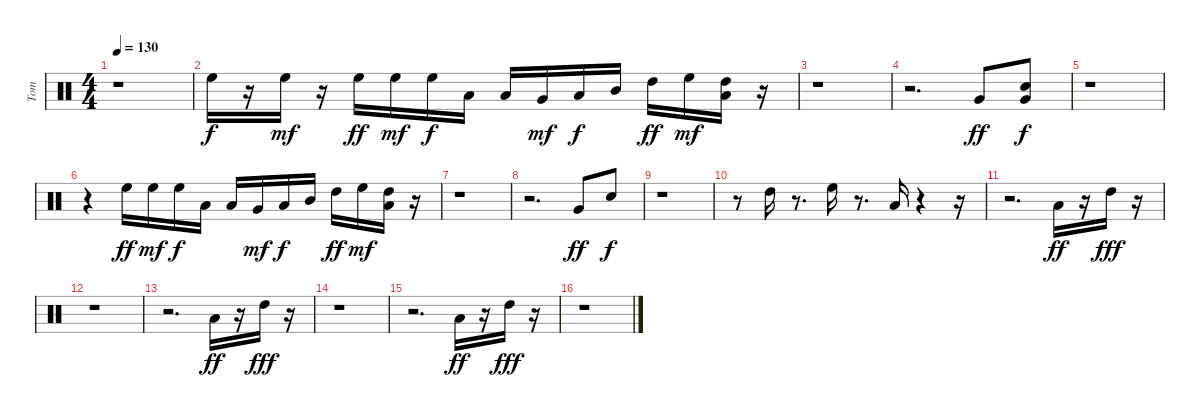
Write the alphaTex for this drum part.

\track ("Tom" "Tom") {instrument percussion}
\staff {score}
\articulation defaults
\ts (4 4)
\tempo 130
\clef neutral
\ks c
r.1{dy f} |
"High Floor Tom (hit)".16 r.16 "High Floor Tom (hit)".16{dy mf} r.16 "High Floor Tom (hit)".16{dy ff} "High Floor Tom (hit)".16{dy mf} "High Floor Tom (hit)".16{dy f} "Low Floor Tom (hit)".16 "Low Floor Tom (hit)".16 "Very Low Tom (hit)".16{dy mf} "Low Tom (hit)".16{dy f} "Mid Tom (hit)".16 "High Tom (hit)".16{dy ff} "High Floor Tom (hit)".16{dy mf} ("High Tom (hit)" "Low Floor Tom (hit)").16 r.16 |
r.1 |
r.2{d} "Very Low Tom (hit)".8{dy ff} ("Very Low Tom (hit)" "Electric Snare (hit)").8{dy f} |
r.1 |
r.4 "High Floor Tom (hit)".16{dy ff} "High Floor Tom (hit)".16{dy mf} "High Floor Tom (hit)".16{dy f} "Low Floor Tom (hit)".16 "Low Floor Tom (hit)".16 "Very Low Tom (hit)".16{dy mf} "Low Tom (hit)".16{dy f} "Mid Tom (hit)".16 "High Tom (hit)".16{dy ff} "High Floor Tom (hit)".16{dy mf} ("High Tom (hit)" "Low Floor Tom (hit)").16 r.16 |
r.1 |
r.2{d} "Very Low Tom (hit)".8{dy ff} "Electric Snare (hit)".8{dy f} |
r.1 |
r.8 "High Tom (hit)".16 r.8{d} "High Floor Tom (hit)".16 r.8{d} "Low Tom (hit)".16 r.4 r.16 |
r.2{d} "Low Tom (hit)".16{dy ff} r.16 "High Tom (hit)".16{dy fff} r.16 |
r.1 |
r.2{d} "Low Tom (hit)".16{dy ff} r.16 "High Tom (hit)".16{dy fff} r.16 |
r.1 |
r.2{d} "Low Tom (hit)".16{dy ff} r.16 "High Tom (hit)".16{dy fff} r.16 |
r.1
